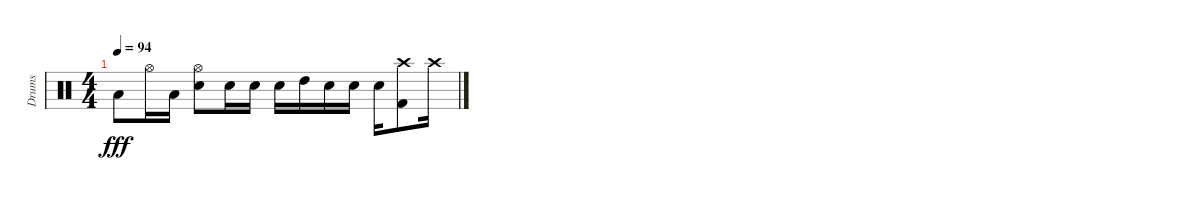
\track ("Drums" "Drums") {instrument percussion}
\staff {score}
\articulation defaults
\ts (4 4)
\tempo 94
\clef neutral
\ks c "Low Tom (hit)".8{dy fff} "Hi-Hat (open)".16 "Low Tom (hit)".16
("Hi-Hat (open)" "Electric Snare (hit)").8 "Electric Snare (hit)".16 "Electric Snare (hit)".16 "Electric Snare (hit)".16 "High Tom (hit)".16 "Electric Snare (hit)".16 "Electric Snare (hit)".16 "Electric Snare (hit)".16 ("Crash high (hit)" "Kick (hit) 2").8 "Crash high (hit)".16
